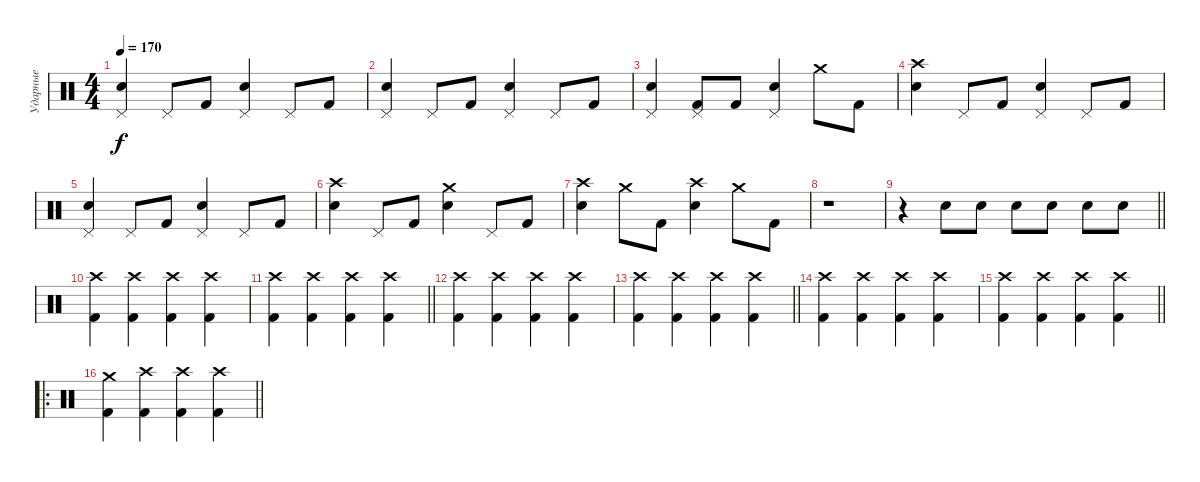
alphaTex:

\track ("Ударные" "Ударные") {instrument percussion}
\staff {score}
\articulation defaults
\ts (4 4)
\tempo 170
\clef neutral
\ks c
("Pedal Hi-Hat (hit)" "Snare (hit) 2").4{dy f} "Pedal Hi-Hat (hit)".8 "Kick (hit) 2".8 ("Pedal Hi-Hat (hit)" "Snare (hit) 2").4 "Pedal Hi-Hat (hit)".8 "Kick (hit) 2".8 |
("Pedal Hi-Hat (hit)" "Snare (hit) 2").4 "Pedal Hi-Hat (hit)".8 "Kick (hit) 2".8 ("Pedal Hi-Hat (hit)" "Snare (hit) 2").4 "Pedal Hi-Hat (hit)".8 "Kick (hit) 2".8 |
("Pedal Hi-Hat (hit)" "Snare (hit) 2").4 ("Pedal Hi-Hat (hit)" "Kick (hit) 2").8 "Kick (hit) 2".8 ("Pedal Hi-Hat (hit)" "Snare (hit) 2").4 "Crash medium (hit)".8 "Kick (hit) 2".8 |
("Crash high (hit)" "Snare (hit) 2").4 "Pedal Hi-Hat (hit)".8 "Kick (hit) 2".8 ("Pedal Hi-Hat (hit)" "Snare (hit) 2").4 "Pedal Hi-Hat (hit)".8 "Kick (hit) 2".8 |
("Pedal Hi-Hat (hit)" "Snare (hit) 2").4 "Pedal Hi-Hat (hit)".8 "Kick (hit) 2".8 ("Pedal Hi-Hat (hit)" "Snare (hit) 2").4 "Pedal Hi-Hat (hit)".8 "Kick (hit) 2".8 |
("Crash high (hit)" "Snare (hit) 2").4 "Pedal Hi-Hat (hit)".8 "Kick (hit) 2".8 ("Crash medium (hit)" "Snare (hit) 2").4 "Pedal Hi-Hat (hit)".8 "Kick (hit) 2".8 |
("Crash high (hit)" "Snare (hit) 2").4 "Crash medium (hit)".8 "Kick (hit) 2".8 ("Crash high (hit)" "Snare (hit) 2").4 "Crash medium (hit)".8 "Kick (hit) 2".8 |
r.1 |
\barLineRight lightlight
r.4 "Snare (hit) 2".8 "Snare (hit) 2".8 "Snare (hit) 2".8 "Snare (hit) 2".8 "Snare (hit) 2".8 "Snare (hit) 2".8 |
("Crash high (hit)" "Kick (hit) 2").4 ("Crash high (hit)" "Kick (hit) 2").4 ("Crash high (hit)" "Kick (hit) 2").4 ("Crash high (hit)" "Kick (hit) 2").4 |
\barLineRight lightlight
("Crash high (hit)" "Kick (hit) 2").4 ("Crash high (hit)" "Kick (hit) 2").4 ("Crash high (hit)" "Kick (hit) 2").4 ("Crash high (hit)" "Kick (hit) 2").4 |
("Crash high (hit)" "Kick (hit) 2").4 ("Crash high (hit)" "Kick (hit) 2").4 ("Crash high (hit)" "Kick (hit) 2").4 ("Crash high (hit)" "Kick (hit) 2").4 |
\barLineRight lightlight
("Crash high (hit)" "Kick (hit) 2").4 ("Crash high (hit)" "Kick (hit) 2").4 ("Crash high (hit)" "Kick (hit) 2").4 ("Crash high (hit)" "Kick (hit) 2").4 |
("Crash high (hit)" "Kick (hit) 2").4 ("Crash high (hit)" "Kick (hit) 2").4 ("Crash high (hit)" "Kick (hit) 2").4 ("Crash high (hit)" "Kick (hit) 2").4 |
\barLineRight lightlight
("Crash high (hit)" "Kick (hit) 2").4 ("Crash high (hit)" "Kick (hit) 2").4 ("Crash high (hit)" "Kick (hit) 2").4 ("Crash high (hit)" "Kick (hit) 2").4 |
\ro
\barLineRight lightlight
("Crash medium (hit)" "Kick (hit) 2").4 ("Crash high (hit)" "Kick (hit) 2").4 ("Crash high (hit)" "Kick (hit) 2").4 ("Crash high (hit)" "Kick (hit) 2").4
